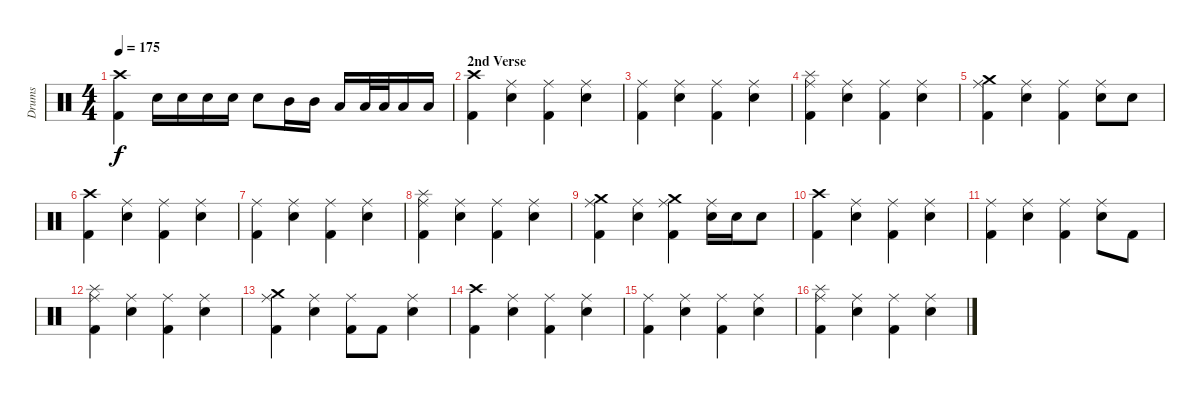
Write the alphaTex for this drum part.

\track ("Drums" "Drums") {instrument percussion}
\staff {score}
\articulation defaults
\ts (4 4)
\tempo 175
\clef neutral
\ks c
("Crash high (hit)" "Kick (hit) 2").4{dy f} "Snare (hit) 2".16 "Snare (hit) 2".16 "Snare (hit) 2".16 "Snare (hit) 2".16 "Snare (hit) 2".8 "Mid Tom (hit)".16 "Mid Tom (hit)".16 "Low Tom (hit)".16 "Low Tom (hit)".32 "Low Tom (hit)".32 "Low Tom (hit)".16 "Low Tom (hit)".16 |
\section ("" "2nd Verse")
("Crash high (hit)" "Kick (hit) 2").4 ("Ride (middle)" "Snare (hit) 2").4 ("Ride (middle)" "Kick (hit) 2").4 ("Ride (middle)" "Snare (hit) 2").4 |
("Ride (middle)" "Kick (hit) 2").4 ("Ride (middle)" "Snare (hit) 2").4 ("Ride (middle)" "Kick (hit) 2").4 ("Ride (middle)" "Snare (hit) 2").4 |
("Splash (hit)" "Ride (middle)" "Kick (hit) 2").4 ("Ride (middle)" "Snare (hit) 2").4 ("Ride (middle)" "Kick (hit) 2").4 ("Ride (middle)" "Snare (hit) 2").4 |
("Crash medium (hit)" "Ride (middle)" "Kick (hit) 2").4 ("Ride (middle)" "Snare (hit) 2").4 ("Ride (middle)" "Kick (hit) 2").4 ("Ride (middle)" "Snare (hit) 2").8 "Snare (hit) 2".8 |
("Crash high (hit)" "Kick (hit) 2").4 ("Ride (middle)" "Snare (hit) 2").4 ("Ride (middle)" "Kick (hit) 2").4 ("Ride (middle)" "Snare (hit) 2").4 |
("Ride (middle)" "Kick (hit) 2").4 ("Ride (middle)" "Snare (hit) 2").4 ("Ride (middle)" "Kick (hit) 2").4 ("Ride (middle)" "Snare (hit) 2").4 |
("Splash (hit)" "Ride (middle)" "Kick (hit) 2").4 ("Ride (middle)" "Snare (hit) 2").4 ("Ride (middle)" "Kick (hit) 2").4 ("Ride (middle)" "Snare (hit) 2").4 |
("Crash medium (hit)" "Ride (middle)" "Kick (hit) 2").4 ("Ride (middle)" "Snare (hit) 2").4 ("Crash medium (hit)" "Ride (middle)" "Kick (hit) 2").4 ("Ride (middle)" "Snare (hit) 2").16 "Snare (hit) 2".16 "Snare (hit) 2".8 |
("Crash high (hit)" "Kick (hit) 2").4 ("Ride (middle)" "Snare (hit) 2").4 ("Ride (middle)" "Kick (hit) 2").4 ("Ride (middle)" "Snare (hit) 2").4 |
("Ride (middle)" "Kick (hit) 2").4 ("Ride (middle)" "Snare (hit) 2").4 ("Ride (middle)" "Kick (hit) 2").4 ("Ride (middle)" "Snare (hit) 2").8 "Kick (hit) 2".8 |
("Splash (hit)" "Ride (middle)" "Kick (hit) 2").4 ("Ride (middle)" "Snare (hit) 2").4 ("Ride (middle)" "Kick (hit) 2").4 ("Ride (middle)" "Snare (hit) 2").4 |
("Crash medium (hit)" "Ride (middle)" "Kick (hit) 2").4 ("Ride (middle)" "Snare (hit) 2").4 ("Ride (middle)" "Kick (hit) 2").8 "Kick (hit) 2".8 ("Ride (middle)" "Snare (hit) 2").4 |
("Crash high (hit)" "Kick (hit) 2").4 ("Ride (middle)" "Snare (hit) 2").4 ("Ride (middle)" "Kick (hit) 2").4 ("Ride (middle)" "Snare (hit) 2").4 |
("Ride (middle)" "Kick (hit) 2").4 ("Ride (middle)" "Snare (hit) 2").4 ("Ride (middle)" "Kick (hit) 2").4 ("Ride (middle)" "Snare (hit) 2").4 |
("Splash (hit)" "Ride (middle)" "Kick (hit) 2").4 ("Ride (middle)" "Snare (hit) 2").4 ("Ride (middle)" "Kick (hit) 2").4 ("Ride (middle)" "Snare (hit) 2").4
